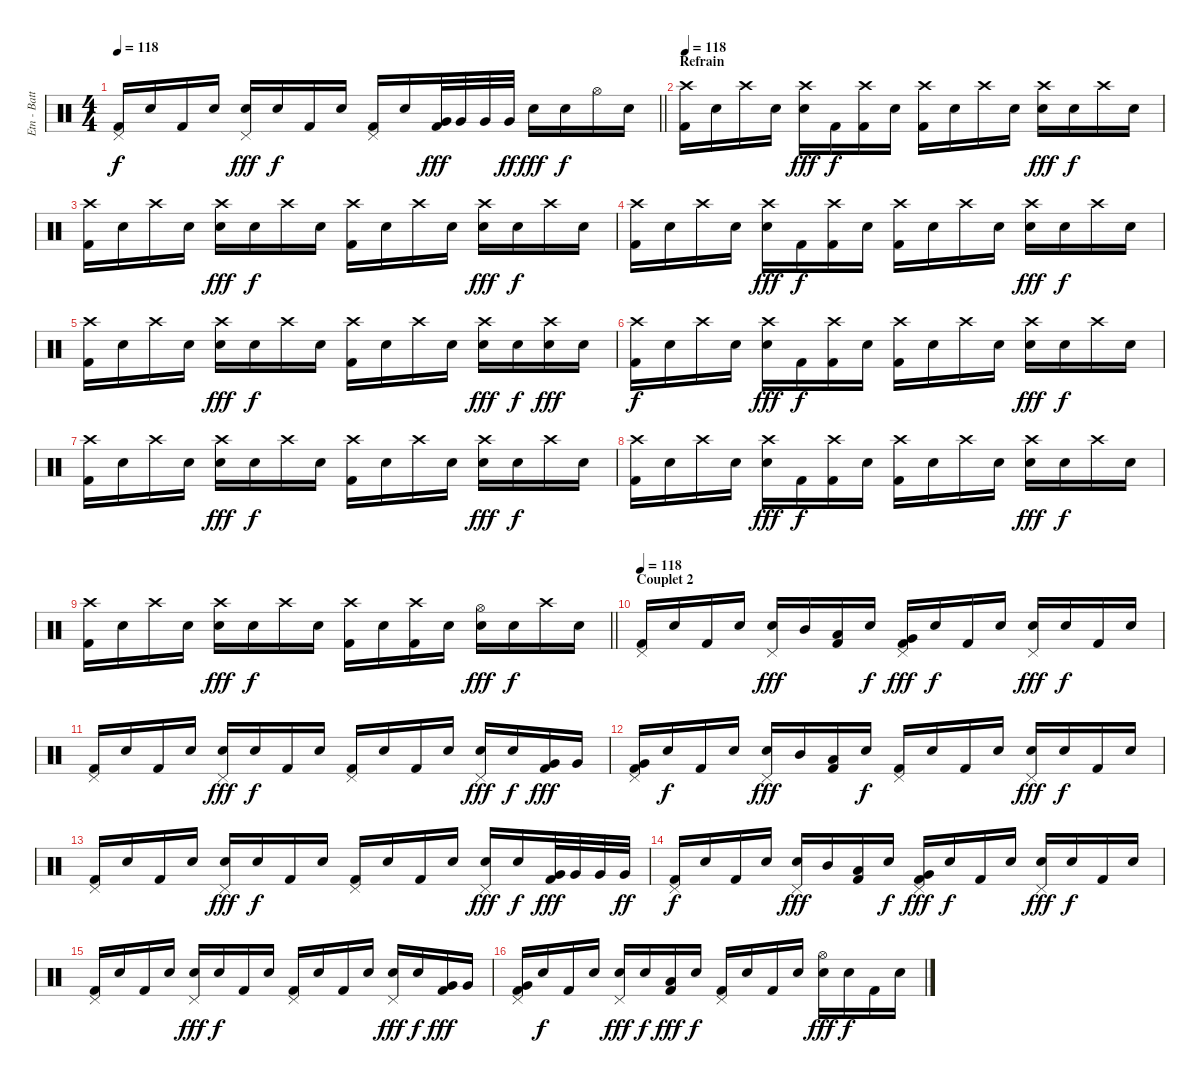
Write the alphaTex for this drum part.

\track ("Etn - Batterie" "Etn - Batt") {instrument percussion}
\staff {score}
\articulation defaults
\ts (4 4)
\tempo 118
\clef neutral
\barLineRight lightlight
\ks c
("Pedal Hi-Hat (hit)" "Kick (hit) 2").16{dy f} "Snare (hit)".16 "Kick (hit) 2".16 "Snare (hit)".16 ("Pedal Hi-Hat (hit)" "Electric Snare (hit)").16{dy fff} "Snare (hit)".16{dy f} "Kick (hit) 2".16 "Snare (hit)".16 ("Pedal Hi-Hat (hit)" "Kick (hit) 2").16 "Snare (hit)".16 ("Very Low Tom (hit)" "Kick (hit) 2").32{dy fff} "Very Low Tom (hit)".32 "Very Low Tom (hit)".32 "Very Low Tom (hit)".32{dy ff} "Electric Snare (hit)".16{dy fff} "Snare (hit)".16{dy f} "Hi-Hat (open)".16 "Snare (hit)".16 |
\section ("" "Refrain")
\tempo 118
("Crash high (hit)" "Kick (hit) 2").16{volume 16 balance 8} "Snare (hit)".16 "Crash high (hit)".16 "Snare (hit)".16 ("Crash high (hit)" "Electric Snare (hit)").16{dy fff} "Kick (hit) 2".16{dy f} ("Crash high (hit)" "Kick (hit) 2").16 "Snare (hit)".16 ("Crash high (hit)" "Kick (hit) 2").16 "Snare (hit)".16 "Crash high (hit)".16 "Snare (hit)".16 ("Crash high (hit)" "Electric Snare (hit)").16{dy fff} "Snare (hit)".16{dy f} "Crash high (hit)".16 "Snare (hit)".16 |
("Crash high (hit)" "Kick (hit) 2").16 "Snare (hit)".16 "Crash high (hit)".16 "Snare (hit)".16 ("Crash high (hit)" "Electric Snare (hit)").16{dy fff} "Snare (hit)".16{dy f} "Crash high (hit)".16 "Snare (hit)".16 ("Crash high (hit)" "Kick (hit) 2").16 "Snare (hit)".16 "Crash high (hit)".16 "Snare (hit)".16 ("Crash high (hit)" "Electric Snare (hit)").16{dy fff} "Snare (hit)".16{dy f} "Crash high (hit)".16 "Snare (hit)".16 |
("Crash high (hit)" "Kick (hit) 2").16 "Snare (hit)".16 "Crash high (hit)".16 "Snare (hit)".16 ("Crash high (hit)" "Electric Snare (hit)").16{dy fff} "Kick (hit) 2".16{dy f} ("Crash high (hit)" "Kick (hit) 2").16 "Snare (hit)".16 ("Crash high (hit)" "Kick (hit) 2").16 "Snare (hit)".16 "Crash high (hit)".16 "Snare (hit)".16 ("Crash high (hit)" "Electric Snare (hit)").16{dy fff} "Snare (hit)".16{dy f} "Crash high (hit)".16 "Snare (hit)".16 |
("Crash high (hit)" "Kick (hit) 2").16 "Snare (hit)".16 "Crash high (hit)".16 "Snare (hit)".16 ("Crash high (hit)" "Electric Snare (hit)").16{dy fff} "Snare (hit)".16{dy f} "Crash high (hit)".16 "Snare (hit)".16 ("Crash high (hit)" "Kick (hit) 2").16 "Snare (hit)".16 "Crash high (hit)".16 "Snare (hit)".16 ("Crash high (hit)" "Electric Snare (hit)").16{dy fff} "Snare (hit)".16{dy f} ("Crash high (hit)" "Electric Snare (hit)").16{dy fff} "Electric Snare (hit)".16 |
("Crash high (hit)" "Kick (hit) 2").16{dy f} "Snare (hit)".16 "Crash high (hit)".16 "Snare (hit)".16 ("Crash high (hit)" "Electric Snare (hit)").16{dy fff} "Kick (hit) 2".16{dy f} ("Crash high (hit)" "Kick (hit) 2").16 "Snare (hit)".16 ("Crash high (hit)" "Kick (hit) 2").16 "Snare (hit)".16 "Crash high (hit)".16 "Snare (hit)".16 ("Crash high (hit)" "Electric Snare (hit)").16{dy fff} "Snare (hit)".16{dy f} "Crash high (hit)".16 "Snare (hit)".16 |
("Crash high (hit)" "Kick (hit) 2").16 "Snare (hit)".16 "Crash high (hit)".16 "Snare (hit)".16 ("Crash high (hit)" "Electric Snare (hit)").16{dy fff} "Snare (hit)".16{dy f} "Crash high (hit)".16 "Snare (hit)".16 ("Crash high (hit)" "Kick (hit) 2").16 "Snare (hit)".16 "Crash high (hit)".16 "Snare (hit)".16 ("Crash high (hit)" "Electric Snare (hit)").16{dy fff} "Snare (hit)".16{dy f} "Crash high (hit)".16 "Snare (hit)".16 |
("Crash high (hit)" "Kick (hit) 2").16 "Snare (hit)".16 "Crash high (hit)".16 "Snare (hit)".16 ("Crash high (hit)" "Electric Snare (hit)").16{dy fff} "Kick (hit) 2".16{dy f} ("Crash high (hit)" "Kick (hit) 2").16 "Snare (hit)".16 ("Crash high (hit)" "Kick (hit) 2").16 "Snare (hit)".16 "Crash high (hit)".16 "Snare (hit)".16 ("Crash high (hit)" "Electric Snare (hit)").16{dy fff} "Snare (hit)".16{dy f} "Crash high (hit)".16 "Snare (hit)".16 |
\barLineRight lightlight
("Crash high (hit)" "Kick (hit) 2").16 "Snare (hit)".16 "Crash high (hit)".16 "Snare (hit)".16 ("Crash high (hit)" "Electric Snare (hit)").16{dy fff} "Snare (hit)".16{dy f} "Crash high (hit)".16 "Snare (hit)".16 ("Crash high (hit)" "Kick (hit) 2").16 "Snare (hit)".16 ("Crash high (hit)" "Kick (hit) 2").16 "Snare (hit)".16 ("Hi-Hat (open)" "Electric Snare (hit)").16{dy fff} "Snare (hit)".16{dy f} "Crash high (hit)".16 "Snare (hit)".16 |
\section ("" "Couplet 2")
\tempo 118
("Pedal Hi-Hat (hit)" "Kick (hit) 2").16{volume 16 balance 8} "Snare (hit)".16 "Kick (hit) 2".16 "Snare (hit)".16 ("Pedal Hi-Hat (hit)" "Electric Snare (hit)").16{dy fff} "Mid Tom (hit)".16 ("Low Tom (hit)" "Kick (hit) 2").16 "Snare (hit)".16{dy f} ("Pedal Hi-Hat (hit)" "Very Low Tom (hit)" "Kick (hit) 2").16{dy fff} "Snare (hit)".16{dy f} "Kick (hit) 2".16 "Snare (hit)".16 ("Pedal Hi-Hat (hit)" "Electric Snare (hit)").16{dy fff} "Snare (hit)".16{dy f} "Kick (hit) 2".16 "Snare (hit)".16 |
("Pedal Hi-Hat (hit)" "Kick (hit) 2").16 "Snare (hit)".16 "Kick (hit) 2".16 "Snare (hit)".16 ("Pedal Hi-Hat (hit)" "Electric Snare (hit)").16{dy fff} "Snare (hit)".16{dy f} "Kick (hit) 2".16 "Snare (hit)".16 ("Pedal Hi-Hat (hit)" "Kick (hit) 2").16 "Snare (hit)".16 "Kick (hit) 2".16 "Snare (hit)".16 ("Pedal Hi-Hat (hit)" "Electric Snare (hit)").16{dy fff} "Snare (hit)".16{dy f} ("Very Low Tom (hit)" "Kick (hit) 2").16{dy fff} "Very Low Tom (hit)".16 |
("Pedal Hi-Hat (hit)" "Very Low Tom (hit)" "Kick (hit) 2").16 "Snare (hit)".16{dy f} "Kick (hit) 2".16 "Snare (hit)".16 ("Pedal Hi-Hat (hit)" "Electric Snare (hit)").16{dy fff} "Mid Tom (hit)".16 ("Low Tom (hit)" "Kick (hit) 2").16 "Snare (hit)".16{dy f} ("Pedal Hi-Hat (hit)" "Kick (hit) 2").16 "Snare (hit)".16 "Kick (hit) 2".16 "Snare (hit)".16 ("Pedal Hi-Hat (hit)" "Electric Snare (hit)").16{dy fff} "Snare (hit)".16{dy f} "Kick (hit) 2".16 "Snare (hit)".16 |
("Pedal Hi-Hat (hit)" "Kick (hit) 2").16 "Snare (hit)".16 "Kick (hit) 2".16 "Snare (hit)".16 ("Pedal Hi-Hat (hit)" "Electric Snare (hit)").16{dy fff} "Snare (hit)".16{dy f} "Kick (hit) 2".16 "Snare (hit)".16 ("Pedal Hi-Hat (hit)" "Kick (hit) 2").16 "Snare (hit)".16 "Kick (hit) 2".16 "Snare (hit)".16 ("Pedal Hi-Hat (hit)" "Electric Snare (hit)").16{dy fff} "Snare (hit)".16{dy f} ("Very Low Tom (hit)" "Kick (hit) 2").32{dy fff} "Very Low Tom (hit)".32 "Very Low Tom (hit)".32 "Very Low Tom (hit)".32{dy ff} |
("Pedal Hi-Hat (hit)" "Kick (hit) 2").16{dy f} "Snare (hit)".16 "Kick (hit) 2".16 "Snare (hit)".16 ("Pedal Hi-Hat (hit)" "Electric Snare (hit)").16{dy fff} "Mid Tom (hit)".16 ("Low Tom (hit)" "Kick (hit) 2").16 "Snare (hit)".16{dy f} ("Pedal Hi-Hat (hit)" "Very Low Tom (hit)" "Kick (hit) 2").16{dy fff} "Snare (hit)".16{dy f} "Kick (hit) 2".16 "Snare (hit)".16 ("Pedal Hi-Hat (hit)" "Electric Snare (hit)").16{dy fff} "Snare (hit)".16{dy f} "Kick (hit) 2".16 "Snare (hit)".16 |
("Pedal Hi-Hat (hit)" "Kick (hit) 2").16 "Snare (hit)".16 "Kick (hit) 2".16 "Snare (hit)".16 ("Pedal Hi-Hat (hit)" "Electric Snare (hit)").16{dy fff} "Snare (hit)".16{dy f} "Kick (hit) 2".16 "Snare (hit)".16 ("Pedal Hi-Hat (hit)" "Kick (hit) 2").16 "Snare (hit)".16 "Kick (hit) 2".16 "Snare (hit)".16 ("Pedal Hi-Hat (hit)" "Electric Snare (hit)").16{dy fff} "Snare (hit)".16{dy f} ("Very Low Tom (hit)" "Kick (hit) 2").16{dy fff} "Very Low Tom (hit)".16 |
("Pedal Hi-Hat (hit)" "Very Low Tom (hit)" "Kick (hit) 2").16 "Snare (hit)".16{dy f} "Kick (hit) 2".16 "Snare (hit)".16 ("Pedal Hi-Hat (hit)" "Electric Snare (hit)").16{dy fff} "Snare (hit)".16{dy f} ("Low Tom (hit)" "Kick (hit) 2").16{dy fff} "Snare (hit)".16{dy f} ("Pedal Hi-Hat (hit)" "Kick (hit) 2").16 "Snare (hit)".16 "Kick (hit) 2".16 "Snare (hit)".16 ("Hi-Hat (open)" "Electric Snare (hit)").16{dy fff} "Snare (hit)".16{dy f} "Kick (hit) 2".16 "Snare (hit)".16
